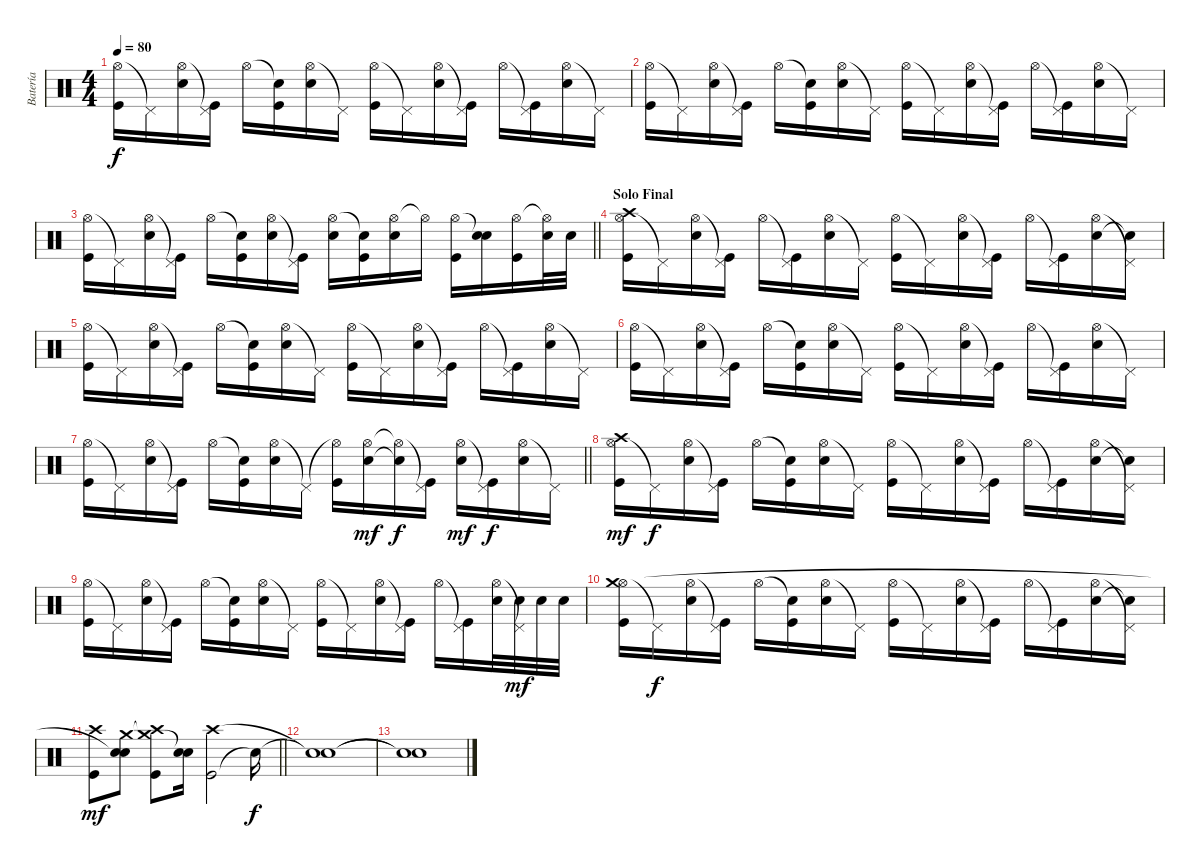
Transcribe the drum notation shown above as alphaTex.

\track ("Batería" "Batería") {instrument percussion}
\staff {score}
\articulation defaults
\ts (4 4)
\tempo 80
\clef neutral
\ks c
("Hi-Hat (open)" "Kick (hit)").16{dy f} "Pedal Hi-Hat (hit)"{t}.16 ("Hi-Hat (open)" "Electric Snare (hit)").16 ("Pedal Hi-Hat (hit)"{t} "Kick (hit)").16 "Hi-Hat (open)".16 ("Snare (hit)"{t} "Kick (hit)").16 ("Hi-Hat (open)" "Electric Snare (hit)").16 "Pedal Hi-Hat (hit)"{t}.16 ("Hi-Hat (open)" "Kick (hit)").16 "Pedal Hi-Hat (hit)"{t}.16 ("Hi-Hat (open)" "Electric Snare (hit)").16 ("Pedal Hi-Hat (hit)"{t} "Kick (hit)").16 "Hi-Hat (open)".16 ("Pedal Hi-Hat (hit)"{t} "Kick (hit)").16 ("Hi-Hat (open)" "Electric Snare (hit)").16 "Pedal Hi-Hat (hit)"{t}.16 |
("Hi-Hat (open)" "Kick (hit)").16 "Pedal Hi-Hat (hit)"{t}.16 ("Hi-Hat (open)" "Electric Snare (hit)").16 ("Pedal Hi-Hat (hit)"{t} "Kick (hit)").16 "Hi-Hat (open)".16 ("Snare (hit)"{t} "Kick (hit)").16 ("Hi-Hat (open)" "Electric Snare (hit)").16 "Pedal Hi-Hat (hit)"{t}.16 ("Hi-Hat (open)" "Kick (hit)").16 "Pedal Hi-Hat (hit)"{t}.16 ("Hi-Hat (open)" "Electric Snare (hit)").16 ("Pedal Hi-Hat (hit)"{t} "Kick (hit)").16 "Hi-Hat (open)".16 ("Pedal Hi-Hat (hit)"{t} "Kick (hit)").16 ("Hi-Hat (open)" "Electric Snare (hit)").16 "Pedal Hi-Hat (hit)"{t}.16 |
\barLineRight lightlight
("Hi-Hat (open)" "Kick (hit)").16 "Pedal Hi-Hat (hit)"{t}.16 ("Hi-Hat (open)" "Electric Snare (hit)").16 ("Pedal Hi-Hat (hit)"{t} "Kick (hit)").16 "Hi-Hat (open)".16 ("Snare (hit)"{t} "Kick (hit)").16 ("Hi-Hat (open)" "Electric Snare (hit)").16 ("Pedal Hi-Hat (hit)"{t} "Kick (hit)").16 ("Hi-Hat (open)" "Electric Snare (hit)").16 ("Snare (hit)"{t} "Kick (hit)").16 ("Hi-Hat (open)" "Electric Snare (hit)").16 "Hi-Hat (open)"{t}.16 ("Hi-Hat (open)" "Kick (hit)").16 ("Snare (hit)"{t} "Electric Snare (hit)").16 ("Hi-Hat (open)" "Kick (hit)").16 ("Hi-Hat (open)"{t} "Electric Snare (hit)").32 "Electric Snare (hit)".32 |
\section ("" "Solo Final")
("Hi-Hat (open)" "Kick (hit)" "Crash high (hit)").16 "Pedal Hi-Hat (hit)"{t}.16 ("Hi-Hat (open)" "Electric Snare (hit)").16 ("Pedal Hi-Hat (hit)"{t} "Kick (hit)").16 "Hi-Hat (open)".16 ("Pedal Hi-Hat (hit)"{t} "Kick (hit)").16 ("Hi-Hat (open)" "Electric Snare (hit)").16 "Pedal Hi-Hat (hit)"{t}.16 ("Hi-Hat (open)" "Kick (hit)").16 "Pedal Hi-Hat (hit)"{t}.16 ("Hi-Hat (open)" "Electric Snare (hit)").16 ("Pedal Hi-Hat (hit)"{t} "Kick (hit)").16 "Hi-Hat (open)".16 ("Pedal Hi-Hat (hit)"{t} "Kick (hit)").16 ("Hi-Hat (open)" "Electric Snare (hit)").16 ("Pedal Hi-Hat (hit)"{t} "Snare (hit)"{t}).16 |
("Hi-Hat (open)" "Kick (hit)").16 "Pedal Hi-Hat (hit)"{t}.16 ("Hi-Hat (open)" "Electric Snare (hit)").16 ("Pedal Hi-Hat (hit)"{t} "Kick (hit)").16 "Hi-Hat (open)".16 ("Snare (hit)"{t} "Kick (hit)").16 ("Hi-Hat (open)" "Electric Snare (hit)").16 "Pedal Hi-Hat (hit)"{t}.16 ("Hi-Hat (open)" "Kick (hit)").16 "Pedal Hi-Hat (hit)"{t}.16 ("Hi-Hat (open)" "Electric Snare (hit)").16 ("Pedal Hi-Hat (hit)"{t} "Kick (hit)").16 "Hi-Hat (open)".16 ("Pedal Hi-Hat (hit)"{t} "Kick (hit)").16 ("Hi-Hat (open)" "Electric Snare (hit)").16 "Pedal Hi-Hat (hit)"{t}.16 |
("Hi-Hat (open)" "Kick (hit)").16 "Pedal Hi-Hat (hit)"{t}.16 ("Hi-Hat (open)" "Electric Snare (hit)").16 ("Pedal Hi-Hat (hit)"{t} "Kick (hit)").16 "Hi-Hat (open)".16 ("Snare (hit)"{t} "Kick (hit)").16 ("Hi-Hat (open)" "Electric Snare (hit)").16 "Pedal Hi-Hat (hit)"{t}.16 ("Hi-Hat (open)" "Kick (hit)").16 "Pedal Hi-Hat (hit)"{t}.16 ("Hi-Hat (open)" "Electric Snare (hit)").16 ("Pedal Hi-Hat (hit)"{t} "Kick (hit)").16 "Hi-Hat (open)".16 ("Pedal Hi-Hat (hit)"{t} "Kick (hit)").16 ("Hi-Hat (open)" "Electric Snare (hit)").16 "Pedal Hi-Hat (hit)"{t}.16 |
\barLineRight lightlight
("Hi-Hat (open)" "Kick (hit)").16 "Pedal Hi-Hat (hit)"{t}.16 ("Hi-Hat (open)" "Electric Snare (hit)").16 ("Pedal Hi-Hat (hit)"{t} "Kick (hit)").16 "Hi-Hat (open)".16 ("Snare (hit)"{t} "Kick (hit)").16 ("Hi-Hat (open)" "Electric Snare (hit)").16 "Pedal Hi-Hat (hit)"{t}.16 ("Hi-Hat (open)"{t} "Kick (hit)").16 ("Hi-Hat (open)" "Electric Snare (hit)").16{dy mf} ("Hi-Hat (open)"{t} "Electric Snare (hit)"{t}).16{dy f} ("Pedal Hi-Hat (hit)"{t} "Kick (hit)").16 ("Hi-Hat (open)" "Electric Snare (hit)").16{dy mf} ("Pedal Hi-Hat (hit)"{t} "Kick (hit)").16{dy f} ("Hi-Hat (open)" "Electric Snare (hit)").16 "Pedal Hi-Hat (hit)"{t}.16 |
("Hi-Hat (open)" "Kick (hit)" "Crash high (hit)").16{dy mf} "Pedal Hi-Hat (hit)"{t}.16{dy f} ("Hi-Hat (open)" "Electric Snare (hit)").16 ("Pedal Hi-Hat (hit)"{t} "Kick (hit)").16 "Hi-Hat (open)".16 ("Snare (hit)"{t} "Kick (hit)").16 ("Hi-Hat (open)" "Electric Snare (hit)").16 "Pedal Hi-Hat (hit)"{t}.16 ("Hi-Hat (open)" "Kick (hit)").16 "Pedal Hi-Hat (hit)"{t}.16 ("Hi-Hat (open)" "Electric Snare (hit)").16 ("Pedal Hi-Hat (hit)"{t} "Kick (hit)").16 "Hi-Hat (open)".16 ("Pedal Hi-Hat (hit)"{t} "Kick (hit)").16 ("Hi-Hat (open)" "Electric Snare (hit)").16 ("Pedal Hi-Hat (hit)"{t} "Snare (hit)"{t}).16 |
("Hi-Hat (open)" "Kick (hit)").16 "Pedal Hi-Hat (hit)"{t}.16 ("Hi-Hat (open)" "Electric Snare (hit)").16 ("Pedal Hi-Hat (hit)"{t} "Kick (hit)").16 "Hi-Hat (open)".16 ("Snare (hit)"{t} "Kick (hit)").16 ("Hi-Hat (open)" "Electric Snare (hit)").16 "Pedal Hi-Hat (hit)"{t}.16 ("Hi-Hat (open)" "Kick (hit)").16 "Pedal Hi-Hat (hit)"{t}.16 ("Hi-Hat (open)" "Electric Snare (hit)").16 ("Pedal Hi-Hat (hit)"{t} "Kick (hit)").16 "Hi-Hat (open)".16 ("Pedal Hi-Hat (hit)"{t} "Kick (hit)").16 ("Hi-Hat (open)" "Electric Snare (hit)").32 ("Pedal Hi-Hat (hit)"{t} "Electric Snare (hit)").32{dy mf} "Electric Snare (hit)".32 "Electric Snare (hit)".32 |
("Hi-Hat (open)" "Kick (hit)" "Crash medium (hit)").16 "Pedal Hi-Hat (hit)"{t}.16{dy f} ("Hi-Hat (open)" "Electric Snare (hit)").16 ("Pedal Hi-Hat (hit)"{t} "Kick (hit)").16 "Hi-Hat (open)".16 ("Snare (hit)"{t} "Kick (hit)").16 ("Hi-Hat (open)" "Electric Snare (hit)").16 "Pedal Hi-Hat (hit)"{t}.16 ("Hi-Hat (open)" "Kick (hit)").16 "Pedal Hi-Hat (hit)"{t}.16 ("Hi-Hat (open)" "Electric Snare (hit)").16 ("Pedal Hi-Hat (hit)"{t} "Kick (hit)").16 "Hi-Hat (open)".16 ("Pedal Hi-Hat (hit)"{t} "Kick (hit)").16 ("Hi-Hat (open)" "Electric Snare (hit)").16 ("Pedal Hi-Hat (hit)"{t} "Snare (hit)"{t}).16 |
\barLineRight lightlight
("Kick (hit)" "Crash high (hit)").8{dy mf} ("Electric Snare (hit)" "Crash medium (hit)" "Snare (hit)"{t}).8 ("Kick (hit)" "Crash medium (hit)"{t} "Crash high (hit)").8 ("Electric Snare (hit)" "Snare (hit)"{t}).16 ("Kick (hit)" "Crash high (hit)").2 "Snare (hit)"{t}.16{dy f} |
("Snare (hit)"{t} "Snare (hit)"{t}).1 |
("Snare (hit)"{t} "Snare (hit)"{t}).1
